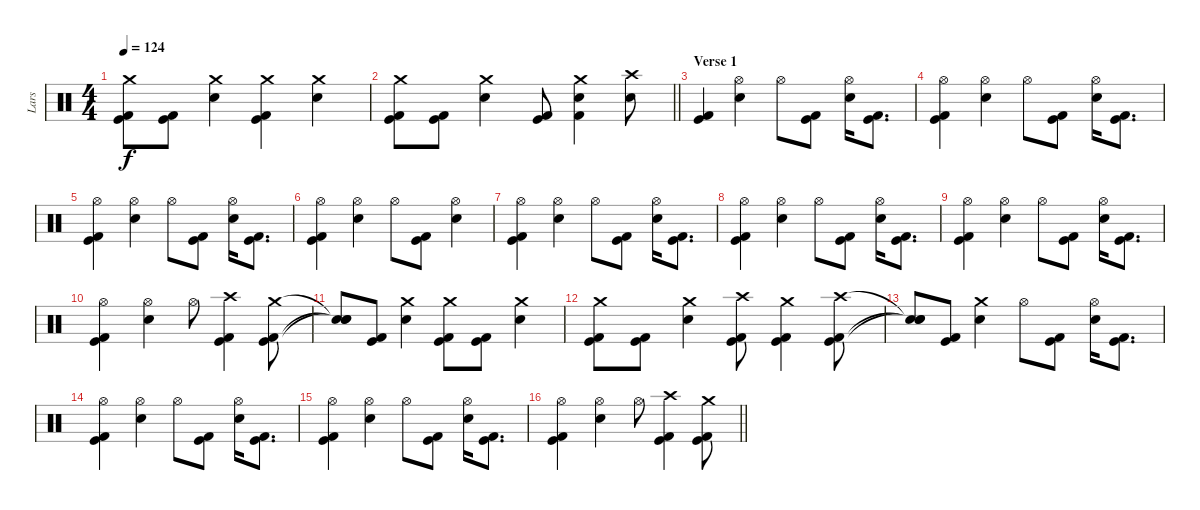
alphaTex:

\track ("Lars" "Lars") {instrument percussion}
\staff {score}
\articulation defaults
\ts (4 4)
\tempo 124
\clef neutral
\ks c
("Crash medium (hit)" "Kick (hit)" "Kick (hit) 2").8{dy f} ("Kick (hit)" "Kick (hit) 2").8 ("Crash medium (hit)" "Electric Snare (hit)").4 ("Crash medium (hit)" "Kick (hit)" "Kick (hit) 2").4 ("Crash medium (hit)" "Electric Snare (hit)").4 |
\barLineRight lightlight
("Crash medium (hit)" "Kick (hit)" "Kick (hit) 2").8 ("Kick (hit)" "Kick (hit) 2").8 ("Crash medium (hit)" "Electric Snare (hit)").4 ("Kick (hit)" "Kick (hit) 2").8 ("Crash medium (hit)" "Electric Snare (hit)" "Kick (hit) 2").4 ("Crash high (hit)" "Electric Snare (hit)").8 |
\section ("" "Verse 1")
("Kick (hit)" "Kick (hit) 2").4 ("Hi-Hat (open)" "Electric Snare (hit)").4 "Hi-Hat (open)".8 ("Kick (hit)" "Kick (hit) 2").8 ("Hi-Hat (open)" "Electric Snare (hit)").16 ("Kick (hit)" "Kick (hit) 2").8{d} |
("Hi-Hat (open)" "Kick (hit)" "Kick (hit) 2").4 ("Hi-Hat (open)" "Electric Snare (hit)").4 "Hi-Hat (open)".8 ("Kick (hit)" "Kick (hit) 2").8 ("Hi-Hat (open)" "Electric Snare (hit)").16 ("Kick (hit)" "Kick (hit) 2").8{d} |
("Hi-Hat (open)" "Kick (hit)" "Kick (hit) 2").4 ("Hi-Hat (open)" "Electric Snare (hit)").4 "Hi-Hat (open)".8 ("Kick (hit)" "Kick (hit) 2").8 ("Hi-Hat (open)" "Electric Snare (hit)").16 ("Kick (hit)" "Kick (hit) 2").8{d} |
("Hi-Hat (open)" "Kick (hit)" "Kick (hit) 2").4 ("Hi-Hat (open)" "Electric Snare (hit)").4 "Hi-Hat (open)".8 ("Kick (hit)" "Kick (hit) 2").8 ("Hi-Hat (open)" "Electric Snare (hit)").4 |
("Hi-Hat (open)" "Kick (hit)" "Kick (hit) 2").4 ("Hi-Hat (open)" "Electric Snare (hit)").4 "Hi-Hat (open)".8 ("Kick (hit)" "Kick (hit) 2").8 ("Hi-Hat (open)" "Electric Snare (hit)").16 ("Kick (hit)" "Kick (hit) 2").8{d} |
("Hi-Hat (open)" "Kick (hit)" "Kick (hit) 2").4 ("Hi-Hat (open)" "Electric Snare (hit)").4 "Hi-Hat (open)".8 ("Kick (hit)" "Kick (hit) 2").8 ("Hi-Hat (open)" "Electric Snare (hit)").16 ("Kick (hit)" "Kick (hit) 2").8{d} |
("Hi-Hat (open)" "Kick (hit)" "Kick (hit) 2").4 ("Hi-Hat (open)" "Electric Snare (hit)").4 "Hi-Hat (open)".8 ("Kick (hit)" "Kick (hit) 2").8 ("Hi-Hat (open)" "Electric Snare (hit)").16 ("Kick (hit)" "Kick (hit) 2").8{d} |
("Hi-Hat (open)" "Kick (hit)" "Kick (hit) 2").4 ("Hi-Hat (open)" "Electric Snare (hit)").4 "Hi-Hat (open)".8 ("Crash high (hit)" "Kick (hit)" "Kick (hit) 2").4 ("Crash medium (hit)" "Kick (hit)" "Kick (hit) 2").8 |
("Snare (hit)"{t} "Snare (hit)"{t} "Snare (hit)"{t}).8 ("Kick (hit)" "Kick (hit) 2").8 ("Crash medium (hit)" "Electric Snare (hit)").4 ("Crash medium (hit)" "Kick (hit)" "Kick (hit) 2").8 ("Kick (hit)" "Kick (hit) 2").8 ("Crash medium (hit)" "Electric Snare (hit)").4 |
("Crash medium (hit)" "Kick (hit)" "Kick (hit) 2").8 ("Kick (hit)" "Kick (hit) 2").8 ("Crash medium (hit)" "Electric Snare (hit)").4 ("Crash high (hit)" "Kick (hit)" "Kick (hit) 2").8 ("Crash medium (hit)" "Kick (hit)" "Kick (hit) 2").4 ("Crash high (hit)" "Kick (hit)" "Kick (hit) 2").8 |
("Snare (hit)"{t} "Snare (hit)"{t} "Snare (hit)"{t}).8 ("Kick (hit)" "Kick (hit) 2").8 ("Crash medium (hit)" "Electric Snare (hit)").4 "Hi-Hat (open)".8 ("Kick (hit)" "Kick (hit) 2").8 ("Hi-Hat (open)" "Electric Snare (hit)").16 ("Kick (hit)" "Kick (hit) 2").8{d} |
("Hi-Hat (open)" "Kick (hit)" "Kick (hit) 2").4 ("Hi-Hat (open)" "Electric Snare (hit)").4 "Hi-Hat (open)".8 ("Kick (hit)" "Kick (hit) 2").8 ("Hi-Hat (open)" "Electric Snare (hit)").16 ("Kick (hit)" "Kick (hit) 2").8{d} |
("Hi-Hat (open)" "Kick (hit)" "Kick (hit) 2").4 ("Hi-Hat (open)" "Electric Snare (hit)").4 "Hi-Hat (open)".8 ("Kick (hit)" "Kick (hit) 2").8 ("Hi-Hat (open)" "Electric Snare (hit)").16 ("Kick (hit)" "Kick (hit) 2").8{d} |
\barLineRight lightlight
("Hi-Hat (open)" "Kick (hit)" "Kick (hit) 2").4 ("Hi-Hat (open)" "Electric Snare (hit)").4 "Hi-Hat (open)".8 ("Crash high (hit)" "Kick (hit)" "Kick (hit) 2").4 ("Crash medium (hit)" "Kick (hit)" "Kick (hit) 2").8
